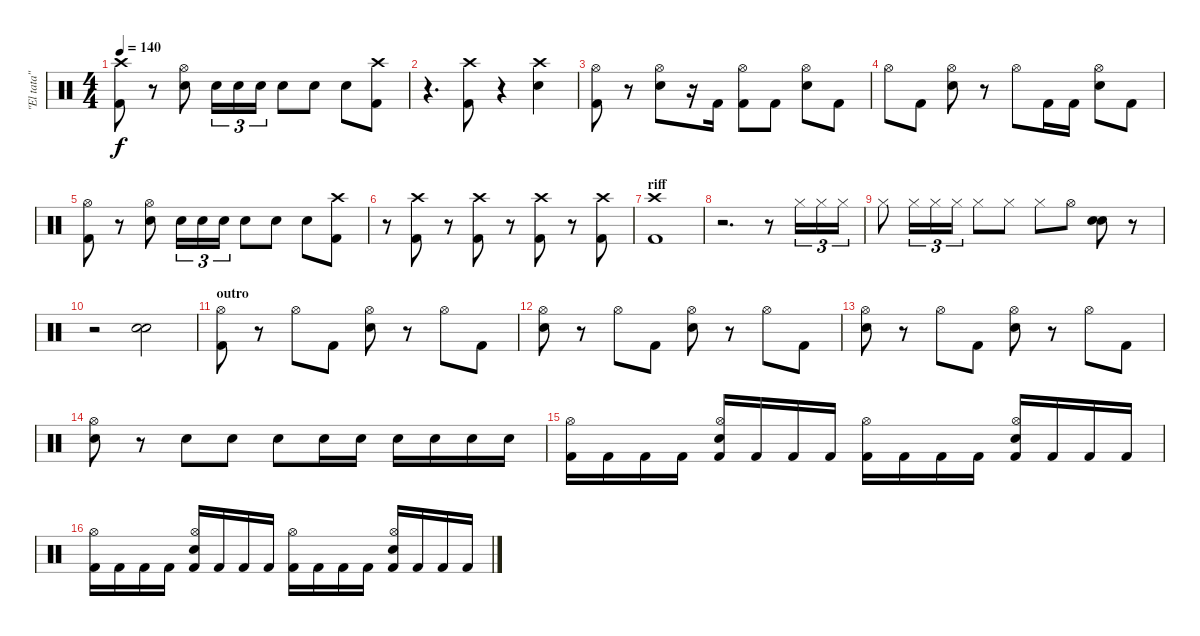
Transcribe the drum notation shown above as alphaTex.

\track ("\"El tata\"" "\"El tata\"") {instrument percussion}
\staff {score}
\articulation defaults
\ts (4 4)
\tempo 140
\clef neutral
\ks c
("Crash high (hit)" "Kick (hit) 2").8{dy f} r.8 ("Hi-Hat (open)" "Electric Snare (hit)").8 "Electric Snare (hit)".16{tu (3 2)} "Electric Snare (hit)".16{tu (3 2)} "Electric Snare (hit)".16{tu (3 2)} "Electric Snare (hit)".8 "Electric Snare (hit)".8 "Electric Snare (hit)".8 ("Crash high (hit)" "Kick (hit) 2").8 |
r.4{d} ("Crash high (hit)" "Kick (hit) 2").8 r.4 ("Crash high (hit)" "Electric Snare (hit)").4 |
("Hi-Hat (open)" "Kick (hit) 2").8 r.8 ("Hi-Hat (open)" "Electric Snare (hit)").8 r.16 "Kick (hit) 2".16 ("Hi-Hat (open)" "Kick (hit) 2").8 "Kick (hit) 2".8 ("Hi-Hat (open)" "Electric Snare (hit)").8 "Kick (hit) 2".8 |
"Hi-Hat (open)".8 "Kick (hit) 2".8 ("Hi-Hat (open)" "Electric Snare (hit)").8 r.8 "Hi-Hat (open)".8 "Kick (hit) 2".16 "Kick (hit) 2".16 ("Hi-Hat (open)" "Electric Snare (hit)").8 "Kick (hit) 2".8 |
("Hi-Hat (open)" "Kick (hit) 2").8 r.8 ("Hi-Hat (open)" "Electric Snare (hit)").8 "Electric Snare (hit)".16{tu (3 2)} "Electric Snare (hit)".16{tu (3 2)} "Electric Snare (hit)".16{tu (3 2)} "Electric Snare (hit)".8 "Electric Snare (hit)".8 "Electric Snare (hit)".8 ("Crash high (hit)" "Kick (hit) 2").8 |
r.8 ("Crash high (hit)" "Kick (hit) 2").8 r.8 ("Crash high (hit)" "Kick (hit) 2").8 r.8 ("Crash high (hit)" "Kick (hit) 2").8 r.8 ("Crash high (hit)" "Kick (hit) 2").8 |
\section ("" "riff")
("Crash high (hit)" "Kick (hit) 2").1 |
r.2{d} r.8 "Hi-Hat (closed)".16{tu (3 2)} "Hi-Hat (closed)".16{tu (3 2)} "Hi-Hat (closed)".16{tu (3 2)} |
"Hi-Hat (closed)".8 "Hi-Hat (closed)".16{tu (3 2)} "Hi-Hat (closed)".16{tu (3 2)} "Hi-Hat (closed)".16{tu (3 2)} "Hi-Hat (closed)".8 "Hi-Hat (closed)".8 "Hi-Hat (closed)".8 "Hi-Hat (open)".8 ("Electric Snare (hit)" "Electric Snare (hit)").8 r.8 |
r.2 ("Electric Snare (hit)" "Electric Snare (hit)").2 |
\section ("" "outro")
("Hi-Hat (open)" "Kick (hit) 2").8 r.8 "Hi-Hat (open)".8 "Kick (hit) 2".8 ("Hi-Hat (open)" "Electric Snare (hit)").8 r.8 "Hi-Hat (open)".8 "Kick (hit) 2".8 |
("Hi-Hat (open)" "Electric Snare (hit)").8 r.8 "Hi-Hat (open)".8 "Kick (hit) 2".8 ("Hi-Hat (open)" "Electric Snare (hit)").8 r.8 "Hi-Hat (open)".8 "Kick (hit) 2".8 |
("Hi-Hat (open)" "Electric Snare (hit)").8 r.8 "Hi-Hat (open)".8 "Kick (hit) 2".8 ("Hi-Hat (open)" "Electric Snare (hit)").8 r.8 "Hi-Hat (open)".8 "Kick (hit) 2".8 |
("Hi-Hat (open)" "Electric Snare (hit)").8 r.8 "Electric Snare (hit)".8 "Electric Snare (hit)".8 "Electric Snare (hit)".8 "Electric Snare (hit)".16 "Electric Snare (hit)".16 "Electric Snare (hit)".16 "Electric Snare (hit)".16 "Electric Snare (hit)".16 "Electric Snare (hit)".16 |
("Hi-Hat (open)" "Kick (hit) 2").16 "Kick (hit) 2".16 "Kick (hit) 2".16 "Kick (hit) 2".16 ("Hi-Hat (open)" "Electric Snare (hit)" "Kick (hit) 2").16 "Kick (hit) 2".16 "Kick (hit) 2".16 "Kick (hit) 2".16 ("Hi-Hat (open)" "Kick (hit) 2").16 "Kick (hit) 2".16 "Kick (hit) 2".16 "Kick (hit) 2".16 ("Hi-Hat (open)" "Electric Snare (hit)" "Kick (hit) 2").16 "Kick (hit) 2".16 "Kick (hit) 2".16 "Kick (hit) 2".16 |
("Hi-Hat (open)" "Kick (hit) 2").16 "Kick (hit) 2".16 "Kick (hit) 2".16 "Kick (hit) 2".16 ("Hi-Hat (open)" "Electric Snare (hit)" "Kick (hit) 2").16 "Kick (hit) 2".16 "Kick (hit) 2".16 "Kick (hit) 2".16 ("Hi-Hat (open)" "Kick (hit) 2").16 "Kick (hit) 2".16 "Kick (hit) 2".16 "Kick (hit) 2".16 ("Hi-Hat (open)" "Electric Snare (hit)" "Kick (hit) 2").16 "Kick (hit) 2".16 "Kick (hit) 2".16 "Kick (hit) 2".16
